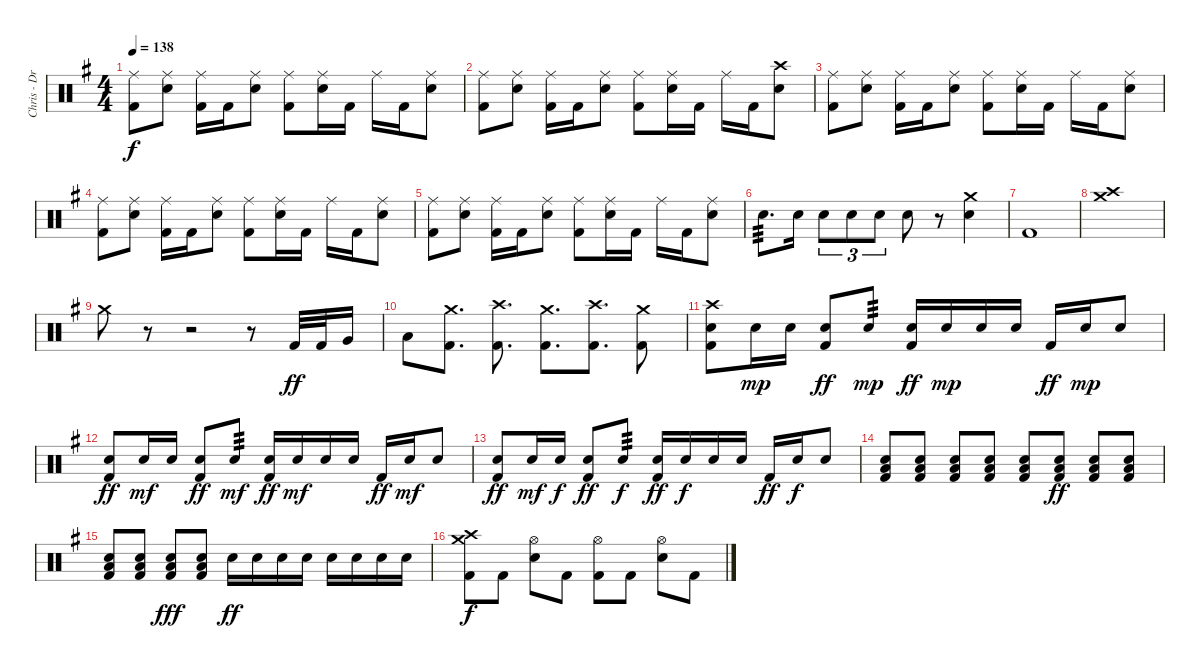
\track ("Chris - Drums" "Chris - Dr") {instrument percussion}
\staff {score}
\articulation defaults
\ts (4 4)
\tempo 138
\clef neutral
\ks g
("Ride (middle)" "Kick (hit) 2").8{dy f} ("Ride (middle)" "Electric Snare (hit)").8 ("Ride (middle)" "Kick (hit) 2").16 "Kick (hit) 2".16 ("Ride (middle)" "Electric Snare (hit)").8 ("Ride (middle)" "Kick (hit) 2").8 ("Ride (middle)" "Electric Snare (hit)").16 "Kick (hit) 2".16 "Ride (middle)".16 "Kick (hit) 2".16 ("Ride (middle)" "Electric Snare (hit)").8 |
("Ride (middle)" "Kick (hit) 2").8 ("Ride (middle)" "Electric Snare (hit)").8 ("Ride (middle)" "Kick (hit) 2").16 "Kick (hit) 2".16 ("Ride (middle)" "Electric Snare (hit)").8 ("Ride (middle)" "Kick (hit) 2").8 ("Ride (middle)" "Electric Snare (hit)").16 "Kick (hit) 2".16 "Ride (middle)".16 "Kick (hit) 2".16 ("Crash high (hit)" "Electric Snare (hit)").8 |
("Ride (middle)" "Kick (hit) 2").8 ("Ride (middle)" "Electric Snare (hit)").8 ("Ride (middle)" "Kick (hit) 2").16 "Kick (hit) 2".16 ("Ride (middle)" "Electric Snare (hit)").8 ("Ride (middle)" "Kick (hit) 2").8 ("Ride (middle)" "Electric Snare (hit)").16 "Kick (hit) 2".16 "Ride (middle)".16 "Kick (hit) 2".16 ("Ride (middle)" "Electric Snare (hit)").8 |
("Ride (middle)" "Kick (hit) 2").8 ("Ride (middle)" "Electric Snare (hit)").8 ("Ride (middle)" "Kick (hit) 2").16 "Kick (hit) 2".16 ("Ride (middle)" "Electric Snare (hit)").8 ("Ride (middle)" "Kick (hit) 2").8 ("Ride (middle)" "Electric Snare (hit)").16 "Kick (hit) 2".16 "Ride (middle)".16 "Kick (hit) 2".16 ("Ride (middle)" "Electric Snare (hit)").8 |
("Ride (middle)" "Kick (hit) 2").8 ("Ride (middle)" "Electric Snare (hit)").8 ("Ride (middle)" "Kick (hit) 2").16 "Kick (hit) 2".16 ("Ride (middle)" "Electric Snare (hit)").8 ("Ride (middle)" "Kick (hit) 2").8 ("Ride (middle)" "Electric Snare (hit)").16 "Kick (hit) 2".16 "Ride (middle)".16 "Kick (hit) 2".16 ("Ride (middle)" "Electric Snare (hit)").8 |
"Electric Snare (hit)".8{d tp 3} "Electric Snare (hit)".16 "Electric Snare (hit)".8{tu (3 2)} "Electric Snare (hit)".8{tu (3 2)} "Electric Snare (hit)".8{tu (3 2)} "Electric Snare (hit)".8 r.8 ("Crash medium (hit)" "Electric Snare (hit)").4 |
"Kick (hit) 2".1 |
("Crash medium (hit)" "Crash high (hit)").1 |
"Crash medium (hit)".8 r.8{volume 0} r.2 r.8 "Kick (hit) 2".32{dy ff volume 14} "Kick (hit) 2".32 "Very Low Tom (hit)".16 |
"Low Floor Tom (hit)".8 ("Crash medium (hit)" "Kick (hit) 2").8{d} ("Crash high (hit)" "Kick (hit) 2").8{d} ("Crash medium (hit)" "Kick (hit) 2").8{d} ("Crash high (hit)" "Kick (hit) 2").8{d} ("Crash medium (hit)" "Kick (hit) 2").8 |
("Crash high (hit)" "Electric Snare (hit)" "Kick (hit) 2").8 "Electric Snare (hit)".16{dy mp} "Electric Snare (hit)".16 ("Electric Snare (hit)" "Kick (hit) 2").8{dy ff} "Electric Snare (hit)".8{tp 3 dy mp} ("Electric Snare (hit)" "Kick (hit) 2").16{dy ff} "Electric Snare (hit)".16{dy mp} "Electric Snare (hit)".16 "Electric Snare (hit)".16 "Kick (hit) 2".16{dy ff} "Electric Snare (hit)".16{dy mp} "Electric Snare (hit)".8 |
("Electric Snare (hit)" "Kick (hit) 2").8{dy ff} "Electric Snare (hit)".16{dy mf} "Electric Snare (hit)".16 ("Electric Snare (hit)" "Kick (hit) 2").8{dy ff} "Electric Snare (hit)".8{tp 3 dy mf} ("Electric Snare (hit)" "Kick (hit) 2").16{dy ff} "Electric Snare (hit)".16{dy mf} "Electric Snare (hit)".16 "Electric Snare (hit)".16 "Kick (hit) 2".16{dy ff} "Electric Snare (hit)".16{dy mf} "Electric Snare (hit)".8 |
("Electric Snare (hit)" "Kick (hit) 2").8{dy ff} "Electric Snare (hit)".16{dy mf} "Electric Snare (hit)".16{dy f} ("Electric Snare (hit)" "Kick (hit) 2").8{dy ff} "Electric Snare (hit)".8{tp 3 dy f} ("Electric Snare (hit)" "Kick (hit) 2").16{dy ff} "Electric Snare (hit)".16{dy f} "Electric Snare (hit)".16 "Electric Snare (hit)".16 "Kick (hit) 2".16{dy ff} "Electric Snare (hit)".16{dy f} "Electric Snare (hit)".8 |
("Low Floor Tom (hit)" "Electric Snare (hit)" "Kick (hit) 2").8{volume 7} ("Low Floor Tom (hit)" "Electric Snare (hit)" "Kick (hit) 2").8{volume 12} ("Low Floor Tom (hit)" "Electric Snare (hit)" "Kick (hit) 2").8 ("Low Floor Tom (hit)" "Electric Snare (hit)" "Kick (hit) 2").8 ("Low Floor Tom (hit)" "Electric Snare (hit)" "Kick (hit) 2").8 ("Low Floor Tom (hit)" "Electric Snare (hit)" "Kick (hit) 2").8{dy ff} ("Low Floor Tom (hit)" "Electric Snare (hit)" "Kick (hit) 2").8 ("Low Floor Tom (hit)" "Electric Snare (hit)" "Kick (hit) 2").8 |
("Low Floor Tom (hit)" "Electric Snare (hit)" "Kick (hit) 2").8{volume 16} ("Low Floor Tom (hit)" "Electric Snare (hit)" "Kick (hit) 2").8 ("Low Floor Tom (hit)" "Electric Snare (hit)" "Kick (hit) 2").8{dy fff} ("Low Floor Tom (hit)" "Electric Snare (hit)" "Kick (hit) 2").8 "Electric Snare (hit)".16{dy ff} "Electric Snare (hit)".16 "Electric Snare (hit)".16 "Electric Snare (hit)".16 "Electric Snare (hit)".16 "Electric Snare (hit)".16 "Electric Snare (hit)".16 "Electric Snare (hit)".16 |
("Crash medium (hit)" "Crash high (hit)" "Kick (hit) 2").8{dy f volume 14} "Kick (hit) 2".8 ("Hi-Hat (open)" "Electric Snare (hit)").8 "Kick (hit) 2".8 ("Hi-Hat (open)" "Kick (hit) 2").8 "Kick (hit) 2".8 ("Hi-Hat (open)" "Electric Snare (hit)").8 "Kick (hit) 2".8
